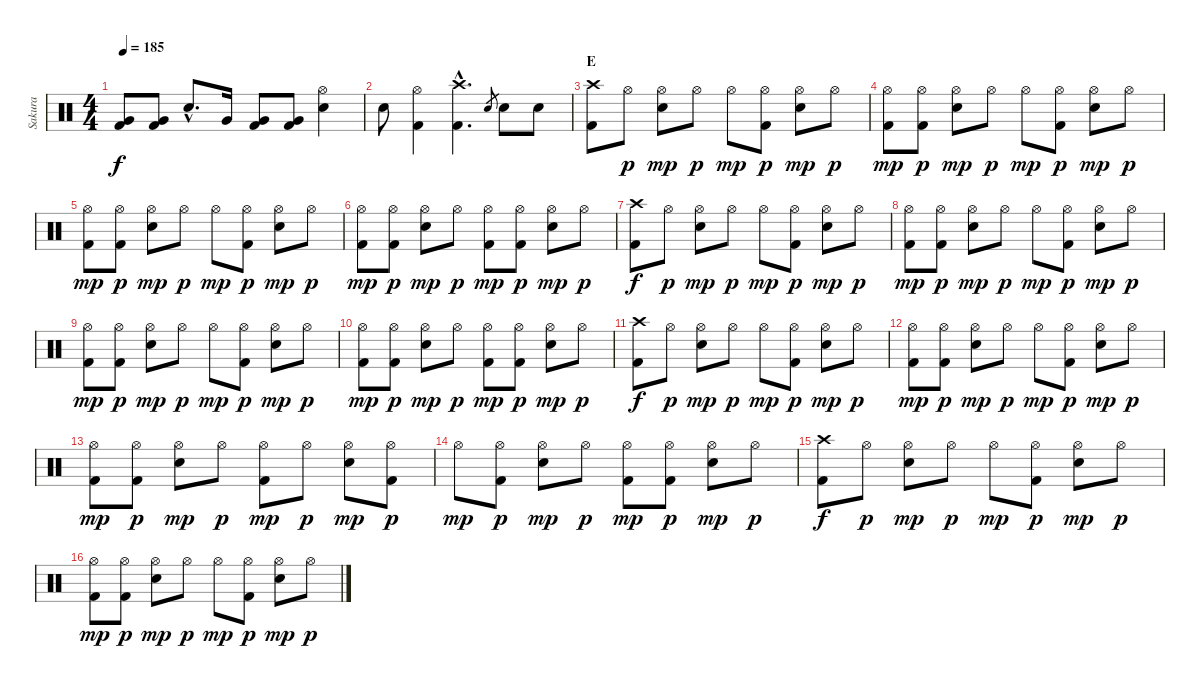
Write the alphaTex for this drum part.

\track ("Sakura" "Sakura") {instrument percussion}
\staff {score}
\articulation defaults
\ts (4 4)
\tempo 185
\clef neutral
\ks c
("Very Low Tom (hit)" "Kick (hit) 2").8{dy f} ("Very Low Tom (hit)" "Kick (hit) 2").8 "Electric Snare (hit)"{hac}.8{d} "Very Low Tom (hit)".16 ("Very Low Tom (hit)" "Kick (hit) 2").8 ("Very Low Tom (hit)" "Kick (hit) 2").8 ("Hi-Hat (open)" "Electric Snare (hit)").4 |
"Electric Snare (hit)".8 ("Hi-Hat (open)" "Kick (hit) 2").4 ("Crash high (hit)"{hac} "Kick (hit) 2"{hac}).4{d} "Electric Snare (hit)".8{gr} "Electric Snare (hit)".8 "Electric Snare (hit)".8 |
\section ("" "E")
("Crash high (hit)" "Kick (hit) 2").8 "Hi-Hat (open)".8{dy p} ("Hi-Hat (open)" "Electric Snare (hit)").8{dy mp} "Hi-Hat (open)".8{dy p} "Hi-Hat (open)".8{dy mp} ("Hi-Hat (open)" "Kick (hit) 2").8{dy p} ("Hi-Hat (open)" "Electric Snare (hit)").8{dy mp} "Hi-Hat (open)".8{dy p} |
("Hi-Hat (open)" "Kick (hit) 2").8{dy mp} ("Hi-Hat (open)" "Kick (hit) 2").8{dy p} ("Hi-Hat (open)" "Electric Snare (hit)").8{dy mp} "Hi-Hat (open)".8{dy p} "Hi-Hat (open)".8{dy mp} ("Hi-Hat (open)" "Kick (hit) 2").8{dy p} ("Hi-Hat (open)" "Electric Snare (hit)").8{dy mp} "Hi-Hat (open)".8{dy p} |
("Hi-Hat (open)" "Kick (hit) 2").8{dy mp} ("Hi-Hat (open)" "Kick (hit) 2").8{dy p} ("Hi-Hat (open)" "Electric Snare (hit)").8{dy mp} "Hi-Hat (open)".8{dy p} "Hi-Hat (open)".8{dy mp} ("Hi-Hat (open)" "Kick (hit) 2").8{dy p} ("Hi-Hat (open)" "Electric Snare (hit)").8{dy mp} "Hi-Hat (open)".8{dy p} |
("Hi-Hat (open)" "Kick (hit) 2").8{dy mp} ("Hi-Hat (open)" "Kick (hit) 2").8{dy p} ("Hi-Hat (open)" "Electric Snare (hit)").8{dy mp} "Hi-Hat (open)".8{dy p} ("Hi-Hat (open)" "Kick (hit) 2").8{dy mp} ("Hi-Hat (open)" "Kick (hit) 2").8{dy p} ("Hi-Hat (open)" "Electric Snare (hit)").8{dy mp} "Hi-Hat (open)".8{dy p} |
("Crash high (hit)" "Kick (hit) 2").8{dy f} "Hi-Hat (open)".8{dy p} ("Hi-Hat (open)" "Electric Snare (hit)").8{dy mp} "Hi-Hat (open)".8{dy p} "Hi-Hat (open)".8{dy mp} ("Hi-Hat (open)" "Kick (hit) 2").8{dy p} ("Hi-Hat (open)" "Electric Snare (hit)").8{dy mp} "Hi-Hat (open)".8{dy p} |
("Hi-Hat (open)" "Kick (hit) 2").8{dy mp} ("Hi-Hat (open)" "Kick (hit) 2").8{dy p} ("Hi-Hat (open)" "Electric Snare (hit)").8{dy mp} "Hi-Hat (open)".8{dy p} "Hi-Hat (open)".8{dy mp} ("Hi-Hat (open)" "Kick (hit) 2").8{dy p} ("Hi-Hat (open)" "Electric Snare (hit)").8{dy mp} "Hi-Hat (open)".8{dy p} |
("Hi-Hat (open)" "Kick (hit) 2").8{dy mp} ("Hi-Hat (open)" "Kick (hit) 2").8{dy p} ("Hi-Hat (open)" "Electric Snare (hit)").8{dy mp} "Hi-Hat (open)".8{dy p} "Hi-Hat (open)".8{dy mp} ("Hi-Hat (open)" "Kick (hit) 2").8{dy p} ("Hi-Hat (open)" "Electric Snare (hit)").8{dy mp} "Hi-Hat (open)".8{dy p} |
("Hi-Hat (open)" "Kick (hit) 2").8{dy mp} ("Hi-Hat (open)" "Kick (hit) 2").8{dy p} ("Hi-Hat (open)" "Electric Snare (hit)").8{dy mp} "Hi-Hat (open)".8{dy p} ("Hi-Hat (open)" "Kick (hit) 2").8{dy mp} ("Hi-Hat (open)" "Kick (hit) 2").8{dy p} ("Hi-Hat (open)" "Electric Snare (hit)").8{dy mp} "Hi-Hat (open)".8{dy p} |
("Crash high (hit)" "Kick (hit) 2").8{dy f} "Hi-Hat (open)".8{dy p} ("Hi-Hat (open)" "Electric Snare (hit)").8{dy mp} "Hi-Hat (open)".8{dy p} "Hi-Hat (open)".8{dy mp} ("Hi-Hat (open)" "Kick (hit) 2").8{dy p} ("Hi-Hat (open)" "Electric Snare (hit)").8{dy mp} "Hi-Hat (open)".8{dy p} |
("Hi-Hat (open)" "Kick (hit) 2").8{dy mp} ("Hi-Hat (open)" "Kick (hit) 2").8{dy p} ("Hi-Hat (open)" "Electric Snare (hit)").8{dy mp} "Hi-Hat (open)".8{dy p} "Hi-Hat (open)".8{dy mp} ("Hi-Hat (open)" "Kick (hit) 2").8{dy p} ("Hi-Hat (open)" "Electric Snare (hit)").8{dy mp} "Hi-Hat (open)".8{dy p} |
("Hi-Hat (open)" "Kick (hit) 2").8{dy mp} ("Hi-Hat (open)" "Kick (hit) 2").8{dy p} ("Hi-Hat (open)" "Electric Snare (hit)").8{dy mp} "Hi-Hat (open)".8{dy p} ("Hi-Hat (open)" "Kick (hit) 2").8{dy mp} "Hi-Hat (open)".8{dy p} ("Hi-Hat (open)" "Electric Snare (hit)").8{dy mp} ("Hi-Hat (open)" "Kick (hit) 2").8{dy p} |
"Hi-Hat (open)".8{dy mp} ("Hi-Hat (open)" "Kick (hit) 2").8{dy p} ("Hi-Hat (open)" "Electric Snare (hit)").8{dy mp} "Hi-Hat (open)".8{dy p} ("Hi-Hat (open)" "Kick (hit) 2").8{dy mp} ("Hi-Hat (open)" "Kick (hit) 2").8{dy p} ("Hi-Hat (open)" "Electric Snare (hit)").8{dy mp} "Hi-Hat (open)".8{dy p} |
("Crash high (hit)" "Kick (hit) 2").8{dy f} "Hi-Hat (open)".8{dy p} ("Hi-Hat (open)" "Electric Snare (hit)").8{dy mp} "Hi-Hat (open)".8{dy p} "Hi-Hat (open)".8{dy mp} ("Hi-Hat (open)" "Kick (hit) 2").8{dy p} ("Hi-Hat (open)" "Electric Snare (hit)").8{dy mp} "Hi-Hat (open)".8{dy p} |
("Hi-Hat (open)" "Kick (hit) 2").8{dy mp} ("Hi-Hat (open)" "Kick (hit) 2").8{dy p} ("Hi-Hat (open)" "Electric Snare (hit)").8{dy mp} "Hi-Hat (open)".8{dy p} "Hi-Hat (open)".8{dy mp} ("Hi-Hat (open)" "Kick (hit) 2").8{dy p} ("Hi-Hat (open)" "Electric Snare (hit)").8{dy mp} "Hi-Hat (open)".8{dy p}
